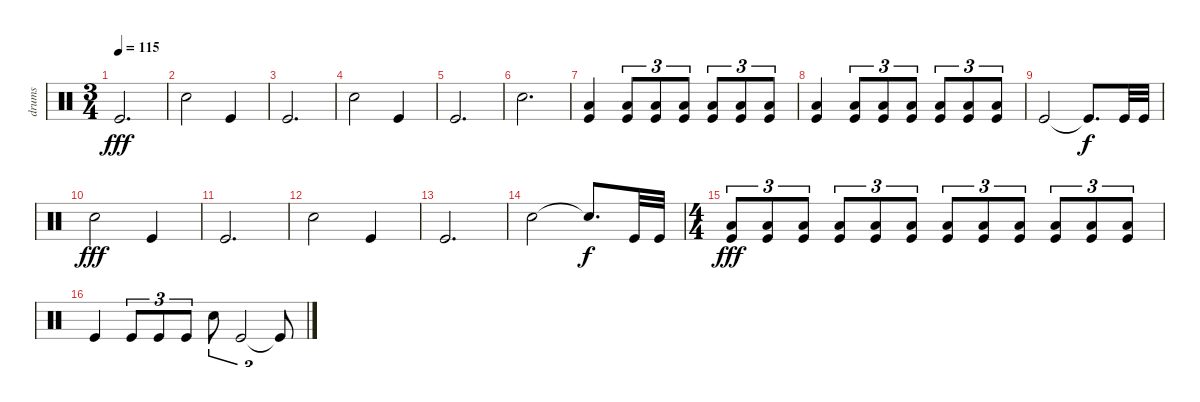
\track ("drums" "drums") {instrument percussion}
\staff {score}
\articulation defaults
\ts (3 4)
\tempo 115
\clef neutral
\ks c "Kick (hit)".2{d dy fff}
|
"Electric Snare (hit)".2 "Kick (hit)".4 |
"Kick (hit)".2{d} |
"Electric Snare (hit)".2 "Kick (hit)".4 |
"Kick (hit)".2{d} |
"Electric Snare (hit)".2{d} |
("Low Floor Tom (hit)" "Kick (hit)").4 ("Low Floor Tom (hit)" "Kick (hit)").8{tu (3 2)} ("Low Floor Tom (hit)" "Kick (hit)").8{tu (3 2)} ("Low Floor Tom (hit)" "Kick (hit)").8{tu (3 2)} ("Low Floor Tom (hit)" "Kick (hit)").8{tu (3 2)} ("Low Floor Tom (hit)" "Kick (hit)").8{tu (3 2)} ("Low Floor Tom (hit)" "Kick (hit)").8{tu (3 2)} |
("Low Floor Tom (hit)" "Kick (hit)").4 ("Low Floor Tom (hit)" "Kick (hit)").8{tu (3 2)} ("Low Floor Tom (hit)" "Kick (hit)").8{tu (3 2)} ("Low Floor Tom (hit)" "Kick (hit)").8{tu (3 2)} ("Low Floor Tom (hit)" "Kick (hit)").8{tu (3 2)} ("Low Floor Tom (hit)" "Kick (hit)").8{tu (3 2)} ("Low Floor Tom (hit)" "Kick (hit)").8{tu (3 2)} |
"Kick (hit)".2 "Kick (hit)"{t}.8{d dy f} "Kick (hit)".32 "Kick (hit)".32 |
"Electric Snare (hit)".2{dy fff} "Kick (hit)".4 |
"Kick (hit)".2{d} |
"Electric Snare (hit)".2 "Kick (hit)".4 |
"Kick (hit)".2{d} |
"Electric Snare (hit)".2 "Electric Snare (hit)"{t}.8{d dy f} "Kick (hit)".32 "Kick (hit)".32 |
\ts (4 4)
("Low Floor Tom (hit)" "Kick (hit)").8{tu (3 2) dy fff} ("Low Floor Tom (hit)" "Kick (hit)").8{tu (3 2)} ("Low Floor Tom (hit)" "Kick (hit)").8{tu (3 2)} ("Low Floor Tom (hit)" "Kick (hit)").8{tu (3 2)} ("Low Floor Tom (hit)" "Kick (hit)").8{tu (3 2)} ("Low Floor Tom (hit)" "Kick (hit)").8{tu (3 2)} ("Low Floor Tom (hit)" "Kick (hit)").8{tu (3 2)} ("Low Floor Tom (hit)" "Kick (hit)").8{tu (3 2)} ("Low Floor Tom (hit)" "Kick (hit)").8{tu (3 2)} ("Low Floor Tom (hit)" "Kick (hit)").8{tu (3 2)} ("Low Floor Tom (hit)" "Kick (hit)").8{tu (3 2)} ("Low Floor Tom (hit)" "Kick (hit)").8{tu (3 2)} |
"Kick (hit)".4 "Kick (hit)".8{tu (3 2)} "Kick (hit)".8{tu (3 2)} "Kick (hit)".8{tu (3 2)} "Electric Snare (hit)".8{tu (3 2)} "Kick (hit)".2{tu (3 2)} "Kick (hit)"{t}.8{tu (3 2)}
